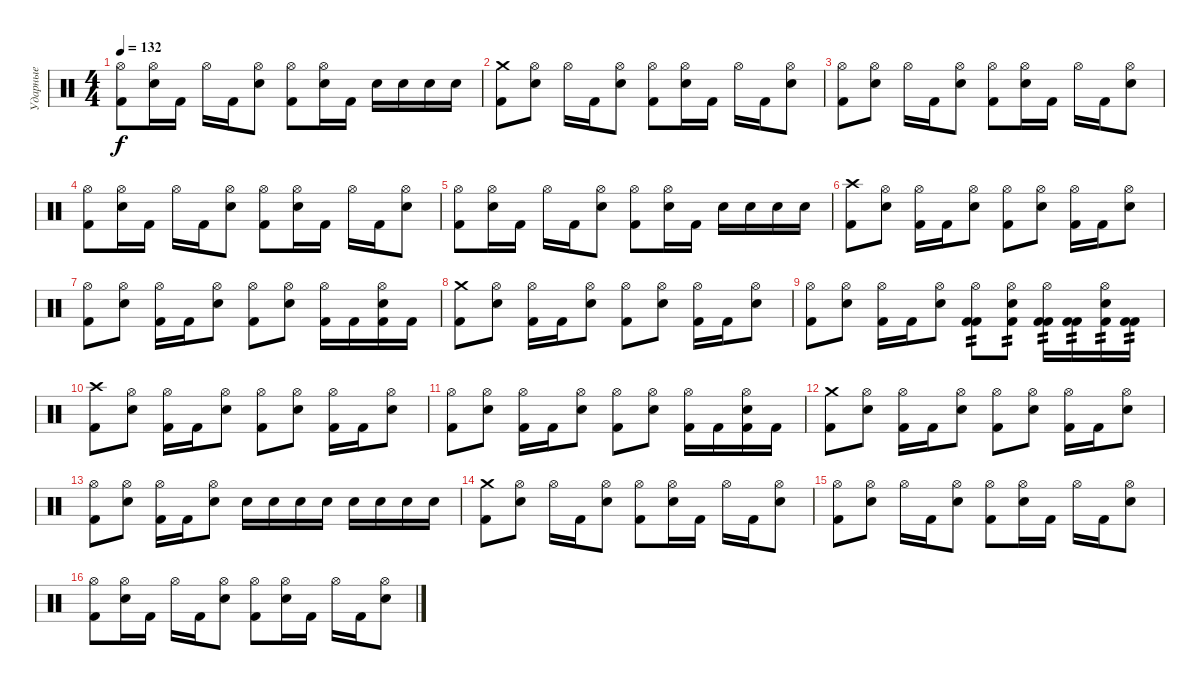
\track ("Ударные" "Ударные") {instrument percussion}
\staff {score}
\articulation defaults
\ts (4 4)
\tempo 132
\clef neutral
\ks c
("Kick (hit) 2" "Hi-Hat (open)").8{dy f} ("Electric Snare (hit)" "Hi-Hat (open)").16 "Kick (hit) 2".16 "Hi-Hat (open)".16 "Kick (hit) 2".16 ("Electric Snare (hit)" "Hi-Hat (open)").8 ("Kick (hit) 2" "Hi-Hat (open)").8 ("Electric Snare (hit)" "Hi-Hat (open)").16 "Kick (hit) 2".16 "Electric Snare (hit)".16 "Electric Snare (hit)".16 "Electric Snare (hit)".16 "Electric Snare (hit)".16 |
("Kick (hit) 2" "Crash medium (hit)").8 ("Electric Snare (hit)" "Hi-Hat (open)").8 "Hi-Hat (open)".16 "Kick (hit) 2".16 ("Electric Snare (hit)" "Hi-Hat (open)").8 ("Kick (hit) 2" "Hi-Hat (open)").8 ("Electric Snare (hit)" "Hi-Hat (open)").16 "Kick (hit) 2".16 "Hi-Hat (open)".16 "Kick (hit) 2".16 ("Electric Snare (hit)" "Hi-Hat (open)").8 |
("Kick (hit) 2" "Hi-Hat (open)").8 ("Electric Snare (hit)" "Hi-Hat (open)").8 "Hi-Hat (open)".16 "Kick (hit) 2".16 ("Electric Snare (hit)" "Hi-Hat (open)").8 ("Kick (hit) 2" "Hi-Hat (open)").8 ("Electric Snare (hit)" "Hi-Hat (open)").16 "Kick (hit) 2".16 "Hi-Hat (open)".16 "Kick (hit) 2".16 ("Electric Snare (hit)" "Hi-Hat (open)").8 |
("Kick (hit) 2" "Hi-Hat (open)").8 ("Electric Snare (hit)" "Hi-Hat (open)").16 "Kick (hit) 2".16 "Hi-Hat (open)".16 "Kick (hit) 2".16 ("Electric Snare (hit)" "Hi-Hat (open)").8 ("Kick (hit) 2" "Hi-Hat (open)").8 ("Electric Snare (hit)" "Hi-Hat (open)").16 "Kick (hit) 2".16 "Hi-Hat (open)".16 "Kick (hit) 2".16 ("Electric Snare (hit)" "Hi-Hat (open)").8 |
("Kick (hit) 2" "Hi-Hat (open)").8 ("Electric Snare (hit)" "Hi-Hat (open)").16 "Kick (hit) 2".16 "Hi-Hat (open)".16 "Kick (hit) 2".16 ("Electric Snare (hit)" "Hi-Hat (open)").8 ("Kick (hit) 2" "Hi-Hat (open)").8 ("Electric Snare (hit)" "Hi-Hat (open)").16 "Kick (hit) 2".16 "Electric Snare (hit)".16 "Electric Snare (hit)".16 "Electric Snare (hit)".16 "Electric Snare (hit)".16 |
("Crash high (hit)" "Kick (hit) 2").8 ("Hi-Hat (open)" "Electric Snare (hit)").8 ("Hi-Hat (open)" "Kick (hit) 2").16 "Kick (hit) 2".16 ("Hi-Hat (open)" "Electric Snare (hit)").8 ("Hi-Hat (open)" "Kick (hit) 2").8 ("Hi-Hat (open)" "Electric Snare (hit)").8 ("Hi-Hat (open)" "Kick (hit) 2").16 "Kick (hit) 2".16 ("Hi-Hat (open)" "Electric Snare (hit)").8 |
("Hi-Hat (open)" "Kick (hit) 2").8 ("Hi-Hat (open)" "Electric Snare (hit)").8 ("Hi-Hat (open)" "Kick (hit) 2").16 "Kick (hit) 2".16 ("Hi-Hat (open)" "Electric Snare (hit)").8 ("Hi-Hat (open)" "Kick (hit) 2").8 ("Hi-Hat (open)" "Electric Snare (hit)").8 ("Hi-Hat (open)" "Kick (hit) 2").16 "Kick (hit) 2".16 ("Hi-Hat (open)" "Kick (hit) 2" "Electric Snare (hit)").16 "Kick (hit) 2".16 |
("Crash medium (hit)" "Kick (hit) 2").8 ("Hi-Hat (open)" "Electric Snare (hit)").8 ("Hi-Hat (open)" "Kick (hit) 2").16 "Kick (hit) 2".16 ("Hi-Hat (open)" "Electric Snare (hit)").8 ("Hi-Hat (open)" "Kick (hit) 2").8 ("Hi-Hat (open)" "Electric Snare (hit)").8 ("Hi-Hat (open)" "Kick (hit) 2").16 "Kick (hit) 2".16 ("Hi-Hat (open)" "Electric Snare (hit)").8 |
("Hi-Hat (open)" "Kick (hit) 2").8 ("Hi-Hat (open)" "Electric Snare (hit)").8 ("Hi-Hat (open)" "Kick (hit) 2").16 "Kick (hit) 2".16 ("Hi-Hat (open)" "Electric Snare (hit)").8 ("Hi-Hat (open)" "Kick (hit) 2" "Kick (hit) 2").8{tp 2} ("Hi-Hat (open)" "Electric Snare (hit)" "Kick (hit) 2").8{tp 2} ("Hi-Hat (open)" "Kick (hit) 2" "Kick (hit) 2").16{tp 2} ("Kick (hit) 2" "Kick (hit) 2").16{tp 2} ("Hi-Hat (open)" "Kick (hit) 2" "Electric Snare (hit)").16{tp 2} ("Kick (hit) 2" "Kick (hit) 2").16{tp 2} |
("Crash high (hit)" "Kick (hit) 2").8 ("Hi-Hat (open)" "Electric Snare (hit)").8 ("Hi-Hat (open)" "Kick (hit) 2").16 "Kick (hit) 2".16 ("Hi-Hat (open)" "Electric Snare (hit)").8 ("Hi-Hat (open)" "Kick (hit) 2").8 ("Hi-Hat (open)" "Electric Snare (hit)").8 ("Hi-Hat (open)" "Kick (hit) 2").16 "Kick (hit) 2".16 ("Hi-Hat (open)" "Electric Snare (hit)").8 |
("Hi-Hat (open)" "Kick (hit) 2").8 ("Hi-Hat (open)" "Electric Snare (hit)").8 ("Hi-Hat (open)" "Kick (hit) 2").16 "Kick (hit) 2".16 ("Hi-Hat (open)" "Electric Snare (hit)").8 ("Hi-Hat (open)" "Kick (hit) 2").8 ("Hi-Hat (open)" "Electric Snare (hit)").8 ("Hi-Hat (open)" "Kick (hit) 2").16 "Kick (hit) 2".16 ("Hi-Hat (open)" "Kick (hit) 2" "Electric Snare (hit)").16 "Kick (hit) 2".16 |
("Crash medium (hit)" "Kick (hit) 2").8 ("Hi-Hat (open)" "Electric Snare (hit)").8 ("Hi-Hat (open)" "Kick (hit) 2").16 "Kick (hit) 2".16 ("Hi-Hat (open)" "Electric Snare (hit)").8 ("Hi-Hat (open)" "Kick (hit) 2").8 ("Hi-Hat (open)" "Electric Snare (hit)").8 ("Hi-Hat (open)" "Kick (hit) 2").16 "Kick (hit) 2".16 ("Hi-Hat (open)" "Electric Snare (hit)").8 |
("Hi-Hat (open)" "Kick (hit) 2").8 ("Hi-Hat (open)" "Electric Snare (hit)").8 ("Hi-Hat (open)" "Kick (hit) 2").16 "Kick (hit) 2".16 ("Hi-Hat (open)" "Electric Snare (hit)").8 "Electric Snare (hit)".16 "Electric Snare (hit)".16 "Electric Snare (hit)".16 "Electric Snare (hit)".16 "Electric Snare (hit)".16 "Electric Snare (hit)".16 "Electric Snare (hit)".16 "Electric Snare (hit)".16 |
("Kick (hit) 2" "Crash medium (hit)").8 ("Electric Snare (hit)" "Hi-Hat (open)").8 "Hi-Hat (open)".16 "Kick (hit) 2".16 ("Electric Snare (hit)" "Hi-Hat (open)").8 ("Kick (hit) 2" "Hi-Hat (open)").8 ("Electric Snare (hit)" "Hi-Hat (open)").16 "Kick (hit) 2".16 "Hi-Hat (open)".16 "Kick (hit) 2".16 ("Electric Snare (hit)" "Hi-Hat (open)").8 |
("Kick (hit) 2" "Hi-Hat (open)").8 ("Electric Snare (hit)" "Hi-Hat (open)").8 "Hi-Hat (open)".16 "Kick (hit) 2".16 ("Electric Snare (hit)" "Hi-Hat (open)").8 ("Kick (hit) 2" "Hi-Hat (open)").8 ("Electric Snare (hit)" "Hi-Hat (open)").16 "Kick (hit) 2".16 "Hi-Hat (open)".16 "Kick (hit) 2".16 ("Electric Snare (hit)" "Hi-Hat (open)").8 |
("Kick (hit) 2" "Hi-Hat (open)").8 ("Electric Snare (hit)" "Hi-Hat (open)").16 "Kick (hit) 2".16 "Hi-Hat (open)".16 "Kick (hit) 2".16 ("Electric Snare (hit)" "Hi-Hat (open)").8 ("Kick (hit) 2" "Hi-Hat (open)").8 ("Electric Snare (hit)" "Hi-Hat (open)").16 "Kick (hit) 2".16 "Hi-Hat (open)".16 "Kick (hit) 2".16 ("Electric Snare (hit)" "Hi-Hat (open)").8
